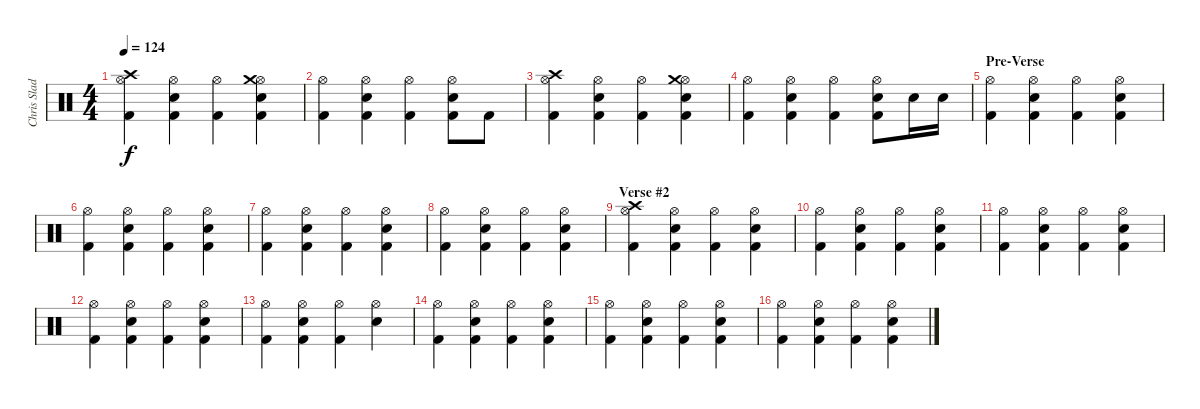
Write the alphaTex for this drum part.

\track ("Chris Slade" "Chris Slad") {instrument percussion}
\staff {score}
\articulation defaults
\ts (4 4)
\tempo 124
\clef neutral
\ks c
("Hi-Hat (open)" "Crash high (hit)" "Kick (hit) 2").4{dy f} ("Hi-Hat (open)" "Snare (hit) 2" "Kick (hit) 2").4 ("Hi-Hat (open)" "Kick (hit) 2").4 ("Hi-Hat (open)" "Crash medium (hit)" "Snare (hit) 2" "Kick (hit) 2").4 |
("Hi-Hat (open)" "Kick (hit) 2").4 ("Hi-Hat (open)" "Snare (hit) 2" "Kick (hit) 2").4 ("Hi-Hat (open)" "Kick (hit) 2").4 ("Hi-Hat (open)" "Snare (hit) 2" "Kick (hit) 2").8 "Kick (hit) 2".8 |
("Hi-Hat (open)" "Crash high (hit)" "Kick (hit) 2").4 ("Hi-Hat (open)" "Snare (hit) 2" "Kick (hit) 2").4 ("Hi-Hat (open)" "Kick (hit) 2").4 ("Hi-Hat (open)" "Crash medium (hit)" "Snare (hit) 2" "Kick (hit) 2").4 |
("Hi-Hat (open)" "Kick (hit) 2").4 ("Hi-Hat (open)" "Snare (hit) 2" "Kick (hit) 2").4 ("Hi-Hat (open)" "Kick (hit) 2").4 ("Hi-Hat (open)" "Snare (hit) 2" "Kick (hit) 2").8 "Snare (hit) 2".16 "Snare (hit) 2".16 |
\section ("" "Pre-Verse")
("Hi-Hat (open)" "Kick (hit) 2").4 ("Hi-Hat (open)" "Snare (hit) 2" "Kick (hit) 2").4 ("Hi-Hat (open)" "Kick (hit) 2").4 ("Hi-Hat (open)" "Snare (hit) 2" "Kick (hit) 2").4 |
("Hi-Hat (open)" "Kick (hit) 2").4 ("Hi-Hat (open)" "Snare (hit) 2" "Kick (hit) 2").4 ("Hi-Hat (open)" "Kick (hit) 2").4 ("Hi-Hat (open)" "Snare (hit) 2" "Kick (hit) 2").4 |
("Hi-Hat (open)" "Kick (hit) 2").4 ("Hi-Hat (open)" "Snare (hit) 2" "Kick (hit) 2").4 ("Hi-Hat (open)" "Kick (hit) 2").4 ("Hi-Hat (open)" "Snare (hit) 2" "Kick (hit) 2").4 |
("Hi-Hat (open)" "Kick (hit) 2").4 ("Hi-Hat (open)" "Snare (hit) 2" "Kick (hit) 2").4 ("Hi-Hat (open)" "Kick (hit) 2").4 ("Hi-Hat (open)" "Snare (hit) 2" "Kick (hit) 2").4 |
\section ("" "Verse #2")
("Hi-Hat (open)" "Crash high (hit)" "Kick (hit) 2").4 ("Hi-Hat (open)" "Snare (hit) 2" "Kick (hit) 2").4 ("Hi-Hat (open)" "Kick (hit) 2").4 ("Hi-Hat (open)" "Snare (hit) 2" "Kick (hit) 2").4 |
("Hi-Hat (open)" "Kick (hit) 2").4 ("Hi-Hat (open)" "Snare (hit) 2" "Kick (hit) 2").4 ("Hi-Hat (open)" "Kick (hit) 2").4 ("Hi-Hat (open)" "Snare (hit) 2" "Kick (hit) 2").4 |
("Hi-Hat (open)" "Kick (hit) 2").4 ("Hi-Hat (open)" "Snare (hit) 2" "Kick (hit) 2").4 ("Hi-Hat (open)" "Kick (hit) 2").4 ("Hi-Hat (open)" "Snare (hit) 2" "Kick (hit) 2").4 |
("Hi-Hat (open)" "Kick (hit) 2").4 ("Hi-Hat (open)" "Snare (hit) 2" "Kick (hit) 2").4 ("Hi-Hat (open)" "Kick (hit) 2").4 ("Hi-Hat (open)" "Snare (hit) 2" "Kick (hit) 2").4 |
("Hi-Hat (open)" "Kick (hit) 2").4 ("Hi-Hat (open)" "Snare (hit) 2" "Kick (hit) 2").4 ("Hi-Hat (open)" "Kick (hit) 2").4 ("Hi-Hat (open)" "Snare (hit) 2").4 |
("Hi-Hat (open)" "Kick (hit) 2").4 ("Hi-Hat (open)" "Snare (hit) 2" "Kick (hit) 2").4 ("Hi-Hat (open)" "Kick (hit) 2").4 ("Hi-Hat (open)" "Snare (hit) 2" "Kick (hit) 2").4 |
("Hi-Hat (open)" "Kick (hit) 2").4 ("Hi-Hat (open)" "Snare (hit) 2" "Kick (hit) 2").4 ("Hi-Hat (open)" "Kick (hit) 2").4 ("Hi-Hat (open)" "Snare (hit) 2" "Kick (hit) 2").4 |
("Hi-Hat (open)" "Kick (hit) 2").4 ("Hi-Hat (open)" "Snare (hit) 2" "Kick (hit) 2").4 ("Hi-Hat (open)" "Kick (hit) 2").4 ("Hi-Hat (open)" "Snare (hit) 2" "Kick (hit) 2").4
